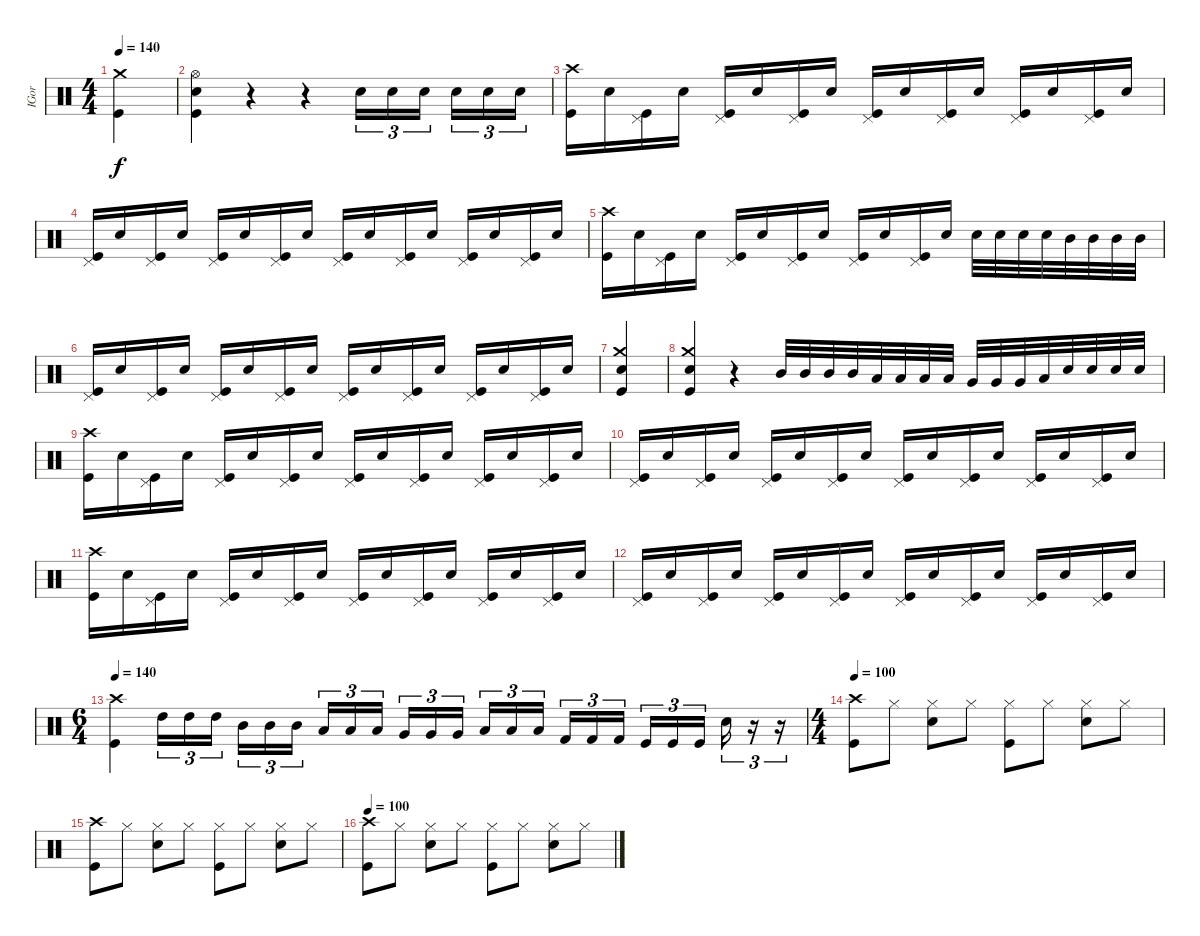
\track ("IGor" "IGor") {instrument percussion}
\staff {score}
\articulation defaults
\ts (4 4)
\tempo 140
\clef neutral
\ks c
("Kick (hit)" "Crash medium (hit)").4{dy f} |
("Electric Snare (hit)" "Kick (hit)" "Hi-Hat (open)").4 r.4 r.4 "Electric Snare (hit)".16{tu (3 2)} "Electric Snare (hit)".16{tu (3 2)} "Electric Snare (hit)".16{tu (3 2)} "Electric Snare (hit)".16{tu (3 2)} "Electric Snare (hit)".16{tu (3 2)} "Electric Snare (hit)".16{tu (3 2)} |
("Kick (hit)" "Crash high (hit)").16 "Electric Snare (hit)".16 ("Pedal Hi-Hat (hit)" "Kick (hit)").16 "Electric Snare (hit)".16 ("Pedal Hi-Hat (hit)" "Kick (hit)").16 "Electric Snare (hit)".16 ("Pedal Hi-Hat (hit)" "Kick (hit)").16 "Electric Snare (hit)".16 ("Pedal Hi-Hat (hit)" "Kick (hit)").16 "Electric Snare (hit)".16 ("Pedal Hi-Hat (hit)" "Kick (hit)").16 "Electric Snare (hit)".16 ("Pedal Hi-Hat (hit)" "Kick (hit)").16 "Electric Snare (hit)".16 ("Pedal Hi-Hat (hit)" "Kick (hit)").16 "Electric Snare (hit)".16 |
("Kick (hit)" "Pedal Hi-Hat (hit)").16 "Electric Snare (hit)".16 ("Pedal Hi-Hat (hit)" "Kick (hit)").16 "Electric Snare (hit)".16 ("Pedal Hi-Hat (hit)" "Kick (hit)").16 "Electric Snare (hit)".16 ("Pedal Hi-Hat (hit)" "Kick (hit)").16 "Electric Snare (hit)".16 ("Pedal Hi-Hat (hit)" "Kick (hit)").16 "Electric Snare (hit)".16 ("Pedal Hi-Hat (hit)" "Kick (hit)").16 "Electric Snare (hit)".16 ("Pedal Hi-Hat (hit)" "Kick (hit)").16 "Electric Snare (hit)".16 ("Pedal Hi-Hat (hit)" "Kick (hit)").16 "Electric Snare (hit)".16 |
("Kick (hit)" "Crash high (hit)").16 "Electric Snare (hit)".16 ("Pedal Hi-Hat (hit)" "Kick (hit)").16 "Electric Snare (hit)".16 ("Pedal Hi-Hat (hit)" "Kick (hit)").16 "Electric Snare (hit)".16 ("Pedal Hi-Hat (hit)" "Kick (hit)").16 "Electric Snare (hit)".16 ("Pedal Hi-Hat (hit)" "Kick (hit)").16 "Electric Snare (hit)".16 ("Pedal Hi-Hat (hit)" "Kick (hit)").16 "Electric Snare (hit)".16 "Electric Snare (hit)".32 "Electric Snare (hit)".32 "Electric Snare (hit)".32 "Electric Snare (hit)".32 "Mid Tom (hit)".32 "Mid Tom (hit)".32 "Mid Tom (hit)".32 "Mid Tom (hit)".32 |
("Kick (hit)" "Pedal Hi-Hat (hit)").16 "Electric Snare (hit)".16 ("Pedal Hi-Hat (hit)" "Kick (hit)").16 "Electric Snare (hit)".16 ("Pedal Hi-Hat (hit)" "Kick (hit)").16 "Electric Snare (hit)".16 ("Pedal Hi-Hat (hit)" "Kick (hit)").16 "Electric Snare (hit)".16 ("Pedal Hi-Hat (hit)" "Kick (hit)").16 "Electric Snare (hit)".16 ("Pedal Hi-Hat (hit)" "Kick (hit)").16 "Electric Snare (hit)".16 ("Pedal Hi-Hat (hit)" "Kick (hit)").16 "Electric Snare (hit)".16 ("Pedal Hi-Hat (hit)" "Kick (hit)").16 "Electric Snare (hit)".16 |
("Electric Snare (hit)" "Kick (hit)" "Crash medium (hit)").4 |
("Electric Snare (hit)" "Kick (hit)" "Crash medium (hit)").4 r.4 "Mid Tom (hit)".32 "Mid Tom (hit)".32 "Mid Tom (hit)".32 "Mid Tom (hit)".32 "Low Tom (hit)".32 "Low Tom (hit)".32 "Low Tom (hit)".32 "Low Tom (hit)".32 "Very Low Tom (hit)".32 "Very Low Tom (hit)".32 "Very Low Tom (hit)".32 "Low Floor Tom (hit)".32 "Electric Snare (hit)".32 "Electric Snare (hit)".32 "Electric Snare (hit)".32 "Electric Snare (hit)".32 |
("Kick (hit)" "Crash high (hit)").16 "Electric Snare (hit)".16 ("Pedal Hi-Hat (hit)" "Kick (hit)").16 "Electric Snare (hit)".16 ("Pedal Hi-Hat (hit)" "Kick (hit)").16 "Electric Snare (hit)".16 ("Pedal Hi-Hat (hit)" "Kick (hit)").16 "Electric Snare (hit)".16 ("Pedal Hi-Hat (hit)" "Kick (hit)").16 "Electric Snare (hit)".16 ("Pedal Hi-Hat (hit)" "Kick (hit)").16 "Electric Snare (hit)".16 ("Pedal Hi-Hat (hit)" "Kick (hit)").16 "Electric Snare (hit)".16 ("Pedal Hi-Hat (hit)" "Kick (hit)").16 "Electric Snare (hit)".16 |
("Kick (hit)" "Pedal Hi-Hat (hit)").16 "Electric Snare (hit)".16 ("Pedal Hi-Hat (hit)" "Kick (hit)").16 "Electric Snare (hit)".16 ("Pedal Hi-Hat (hit)" "Kick (hit)").16 "Electric Snare (hit)".16 ("Pedal Hi-Hat (hit)" "Kick (hit)").16 "Electric Snare (hit)".16 ("Pedal Hi-Hat (hit)" "Kick (hit)").16 "Electric Snare (hit)".16 ("Pedal Hi-Hat (hit)" "Kick (hit)").16 "Electric Snare (hit)".16 ("Pedal Hi-Hat (hit)" "Kick (hit)").16 "Electric Snare (hit)".16 ("Pedal Hi-Hat (hit)" "Kick (hit)").16 "Electric Snare (hit)".16 |
("Kick (hit)" "Crash high (hit)").16 "Electric Snare (hit)".16 ("Pedal Hi-Hat (hit)" "Kick (hit)").16 "Electric Snare (hit)".16 ("Pedal Hi-Hat (hit)" "Kick (hit)").16 "Electric Snare (hit)".16 ("Pedal Hi-Hat (hit)" "Kick (hit)").16 "Electric Snare (hit)".16 ("Pedal Hi-Hat (hit)" "Kick (hit)").16 "Electric Snare (hit)".16 ("Pedal Hi-Hat (hit)" "Kick (hit)").16 "Electric Snare (hit)".16 ("Pedal Hi-Hat (hit)" "Kick (hit)").16 "Electric Snare (hit)".16 ("Pedal Hi-Hat (hit)" "Kick (hit)").16 "Electric Snare (hit)".16 |
("Kick (hit)" "Pedal Hi-Hat (hit)").16 "Electric Snare (hit)".16 ("Pedal Hi-Hat (hit)" "Kick (hit)").16 "Electric Snare (hit)".16 ("Pedal Hi-Hat (hit)" "Kick (hit)").16 "Electric Snare (hit)".16 ("Pedal Hi-Hat (hit)" "Kick (hit)").16 "Electric Snare (hit)".16 ("Pedal Hi-Hat (hit)" "Kick (hit)").16 "Electric Snare (hit)".16 ("Pedal Hi-Hat (hit)" "Kick (hit)").16 "Electric Snare (hit)".16 ("Pedal Hi-Hat (hit)" "Kick (hit)").16 "Electric Snare (hit)".16 ("Pedal Hi-Hat (hit)" "Kick (hit)").16 "Electric Snare (hit)".16 |
\ts (6 4)
\tempo 140
("Kick (hit)" "Crash high (hit)").4 "High Tom (hit)".16{tu (3 2)} "High Tom (hit)".16{tu (3 2)} "High Tom (hit)".16{tu (3 2)} "Mid Tom (hit)".16{tu (3 2)} "Mid Tom (hit)".16{tu (3 2)} "Mid Tom (hit)".16{tu (3 2)} "Low Tom (hit)".16{tu (3 2)} "Low Tom (hit)".16{tu (3 2)} "Low Tom (hit)".16{tu (3 2)} "Very Low Tom (hit)".16{tu (3 2)} "Very Low Tom (hit)".16{tu (3 2)} "Very Low Tom (hit)".16{tu (3 2)} "Low Floor Tom (hit)".16{tu (3 2)} "Low Floor Tom (hit)".16{tu (3 2)} "Low Floor Tom (hit)".16{tu (3 2)} "Kick (hit) 2".16{tu (3 2)} "Kick (hit) 2".16{tu (3 2)} "Kick (hit) 2".16{tu (3 2)} "Kick (hit)".16{tu (3 2)} "Kick (hit)".16{tu (3 2)} "Kick (hit)".16{tu (3 2)} "Electric Snare (hit)".16{tu (3 2)} r.16{tu (3 2)} r.16{tu (3 2)} |
\ts (4 4)
\tempo 100
("Kick (hit)" "Crash high (hit)").8 "Hi-Hat (closed)".8 ("Electric Snare (hit)" "Hi-Hat (closed)").8 "Hi-Hat (closed)".8 ("Hi-Hat (closed)" "Kick (hit)").8 "Hi-Hat (closed)".8 ("Electric Snare (hit)" "Hi-Hat (closed)").8 "Hi-Hat (closed)".8 |
("Kick (hit)" "Crash high (hit)").8 "Hi-Hat (closed)".8 ("Electric Snare (hit)" "Hi-Hat (closed)").8 "Hi-Hat (closed)".8 ("Hi-Hat (closed)" "Kick (hit)").8 "Hi-Hat (closed)".8 ("Electric Snare (hit)" "Hi-Hat (closed)").8 "Hi-Hat (closed)".8 |
\tempo 100
("Kick (hit)" "Crash high (hit)").8 "Hi-Hat (closed)".8 ("Electric Snare (hit)" "Hi-Hat (closed)").8 "Hi-Hat (closed)".8 ("Hi-Hat (closed)" "Kick (hit)").8 "Hi-Hat (closed)".8 ("Electric Snare (hit)" "Hi-Hat (closed)").8 "Hi-Hat (closed)".8
